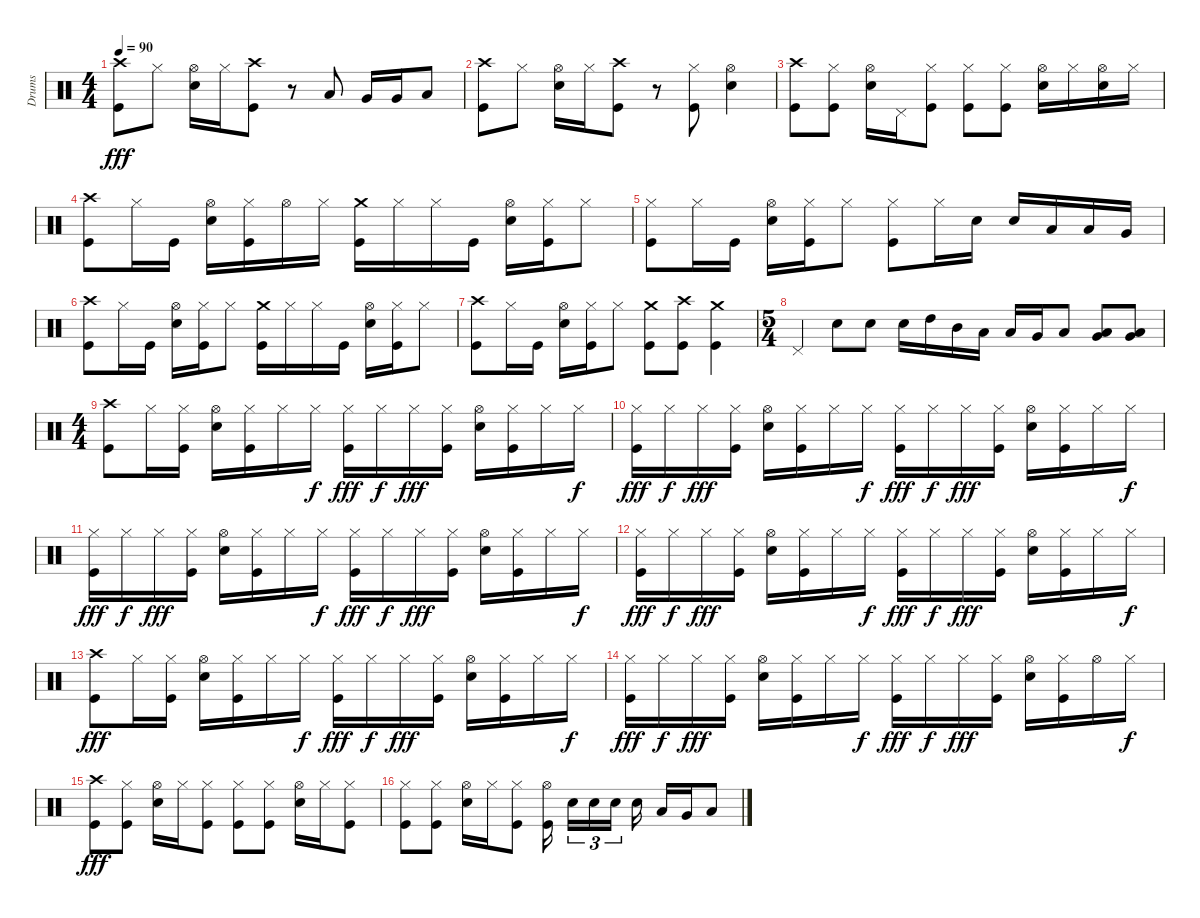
\track ("Drums" "Drums") {instrument percussion}
\staff {score}
\articulation defaults
\ts (4 4)
\tempo 90
\clef neutral
\ks c
("Crash high (hit)" "Kick (hit)").8{dy fff} "Hi-Hat (closed)".8 ("Hi-Hat (open)" "Snare (hit) 2").16 "Hi-Hat (closed)".16 ("Crash high (hit)" "Kick (hit)").8 r.8 "Low Tom (hit)".8 "Very Low Tom (hit)".16 "Very Low Tom (hit)".16 "Low Floor Tom (hit)".8 |
("Crash high (hit)" "Kick (hit)").8 "Hi-Hat (closed)".8 ("Hi-Hat (open)" "Snare (hit) 2").16 "Hi-Hat (closed)".16 ("Crash high (hit)" "Kick (hit)").8 r.8 ("Hi-Hat (closed)" "Kick (hit)").8 ("Hi-Hat (open)" "Snare (hit) 2").4 |
("Crash high (hit)" "Kick (hit)").8 ("Hi-Hat (closed)" "Kick (hit)").8 ("Hi-Hat (open)" "Snare (hit) 2").16 "Pedal Hi-Hat (hit)".16 ("Hi-Hat (closed)" "Kick (hit)").8 ("Hi-Hat (closed)" "Kick (hit)").8 ("Hi-Hat (closed)" "Kick (hit)").8 ("Hi-Hat (open)" "Snare (hit) 2").16 "Hi-Hat (closed)".16 ("Hi-Hat (open)" "Snare (hit) 2").16 "Hi-Hat (closed)".16 |
("Crash high (hit)" "Kick (hit)").8 "Hi-Hat (closed)".16 "Kick (hit)".16 ("Hi-Hat (open)" "Snare (hit) 2").16 ("Hi-Hat (closed)" "Kick (hit)").16 "Hi-Hat (open)".16 "Hi-Hat (closed)".16 ("Crash medium (hit)" "Kick (hit)").16 "Hi-Hat (closed)".16 "Hi-Hat (closed)".16 "Kick (hit)".16 ("Hi-Hat (open)" "Snare (hit) 2").16 ("Hi-Hat (closed)" "Kick (hit)").16 "Hi-Hat (closed)".8 |
("Hi-Hat (closed)" "Kick (hit)").8 "Hi-Hat (closed)".16 "Kick (hit)".16 ("Hi-Hat (open)" "Snare (hit) 2").16 ("Hi-Hat (closed)" "Kick (hit)").16 "Hi-Hat (closed)".8 ("Hi-Hat (closed)" "Kick (hit)").8 "Hi-Hat (closed)".16 "Snare (hit) 2".16 "Snare (hit) 2".16 "Low Tom (hit)".16 "Low Tom (hit)".16 "Very Low Tom (hit)".16 |
("Crash high (hit)" "Kick (hit)").8 "Hi-Hat (closed)".16 "Kick (hit)".16 ("Hi-Hat (open)" "Snare (hit) 2").16 ("Hi-Hat (closed)" "Kick (hit)").16 "Hi-Hat (closed)".8 ("Crash medium (hit)" "Kick (hit)").16 "Hi-Hat (closed)".16 "Hi-Hat (closed)".16 "Kick (hit)".16 ("Hi-Hat (open)" "Snare (hit) 2").16 ("Hi-Hat (closed)" "Kick (hit)").16 "Hi-Hat (closed)".8 |
("Crash high (hit)" "Kick (hit)").8 "Hi-Hat (closed)".16 "Kick (hit)".16 ("Hi-Hat (open)" "Snare (hit) 2").16 ("Hi-Hat (closed)" "Kick (hit)").16 "Hi-Hat (closed)".8 ("Crash medium (hit)" "Kick (hit)").8 ("Crash high (hit)" "Kick (hit)").8 ("Crash medium (hit)" "Kick (hit)").4 |
\ts (5 4)
"Pedal Hi-Hat (hit)".4 "Snare (hit) 2".8 "Snare (hit) 2".8 "Snare (hit) 2".16 "High Tom (hit)".16 "Mid Tom (hit)".16 "Low Tom (hit)".16 "Low Tom (hit)".16 "Very Low Tom (hit)".16 "Low Floor Tom (hit)".8 ("Very Low Tom (hit)" "Low Floor Tom (hit)").8 ("Very Low Tom (hit)" "Low Floor Tom (hit)").8 |
\ts (4 4)
("Crash high (hit)" "Kick (hit)").8 "Hi-Hat (closed)".16 ("Hi-Hat (closed)" "Kick (hit)").16 ("Hi-Hat (open)" "Snare (hit) 2").16 ("Hi-Hat (closed)" "Kick (hit)").16 "Hi-Hat (closed)".16 "Hi-Hat (closed)".16{dy f} ("Hi-Hat (closed)" "Kick (hit)").16{dy fff} "Hi-Hat (closed)".16{dy f} "Hi-Hat (closed)".16{dy fff} ("Hi-Hat (closed)" "Kick (hit)").16 ("Hi-Hat (open)" "Snare (hit) 2").16 ("Hi-Hat (closed)" "Kick (hit)").16 "Hi-Hat (closed)".16 "Hi-Hat (closed)".16{dy f} |
("Hi-Hat (closed)" "Kick (hit)").16{dy fff} "Hi-Hat (closed)".16{dy f} "Hi-Hat (closed)".16{dy fff} ("Hi-Hat (closed)" "Kick (hit)").16 ("Hi-Hat (open)" "Snare (hit) 2").16 ("Hi-Hat (closed)" "Kick (hit)").16 "Hi-Hat (closed)".16 "Hi-Hat (closed)".16{dy f} ("Hi-Hat (closed)" "Kick (hit)").16{dy fff} "Hi-Hat (closed)".16{dy f} "Hi-Hat (closed)".16{dy fff} ("Hi-Hat (closed)" "Kick (hit)").16 ("Hi-Hat (open)" "Snare (hit) 2").16 ("Hi-Hat (closed)" "Kick (hit)").16 "Hi-Hat (closed)".16 "Hi-Hat (closed)".16{dy f} |
("Hi-Hat (closed)" "Kick (hit)").16{dy fff} "Hi-Hat (closed)".16{dy f} "Hi-Hat (closed)".16{dy fff} ("Hi-Hat (closed)" "Kick (hit)").16 ("Hi-Hat (open)" "Snare (hit) 2").16 ("Hi-Hat (closed)" "Kick (hit)").16 "Hi-Hat (closed)".16 "Hi-Hat (closed)".16{dy f} ("Hi-Hat (closed)" "Kick (hit)").16{dy fff} "Hi-Hat (closed)".16{dy f} "Hi-Hat (closed)".16{dy fff} ("Hi-Hat (closed)" "Kick (hit)").16 ("Hi-Hat (open)" "Snare (hit) 2").16 ("Hi-Hat (closed)" "Kick (hit)").16 "Hi-Hat (closed)".16 "Hi-Hat (closed)".16{dy f} |
("Hi-Hat (closed)" "Kick (hit)").16{dy fff} "Hi-Hat (closed)".16{dy f} "Hi-Hat (closed)".16{dy fff} ("Hi-Hat (closed)" "Kick (hit)").16 ("Hi-Hat (open)" "Snare (hit) 2").16 ("Hi-Hat (closed)" "Kick (hit)").16 "Hi-Hat (closed)".16 "Hi-Hat (closed)".16{dy f} ("Hi-Hat (closed)" "Kick (hit)").16{dy fff} "Hi-Hat (closed)".16{dy f} "Hi-Hat (closed)".16{dy fff} ("Hi-Hat (closed)" "Kick (hit)").16 ("Hi-Hat (open)" "Snare (hit) 2").16 ("Hi-Hat (closed)" "Kick (hit)").16 "Hi-Hat (closed)".16 "Hi-Hat (closed)".16{dy f} |
("Crash high (hit)" "Kick (hit)").8{dy fff} "Hi-Hat (closed)".16 ("Hi-Hat (closed)" "Kick (hit)").16 ("Hi-Hat (open)" "Snare (hit) 2").16 ("Hi-Hat (closed)" "Kick (hit)").16 "Hi-Hat (closed)".16 "Hi-Hat (closed)".16{dy f} ("Hi-Hat (closed)" "Kick (hit)").16{dy fff} "Hi-Hat (closed)".16{dy f} "Hi-Hat (closed)".16{dy fff} ("Hi-Hat (closed)" "Kick (hit)").16 ("Hi-Hat (open)" "Snare (hit) 2").16 ("Hi-Hat (closed)" "Kick (hit)").16 "Hi-Hat (closed)".16 "Hi-Hat (closed)".16{dy f} |
("Hi-Hat (closed)" "Kick (hit)").16{dy fff} "Hi-Hat (closed)".16{dy f} "Hi-Hat (closed)".16{dy fff} ("Hi-Hat (closed)" "Kick (hit)").16 ("Hi-Hat (open)" "Snare (hit) 2").16 ("Hi-Hat (closed)" "Kick (hit)").16 "Hi-Hat (closed)".16 "Hi-Hat (closed)".16{dy f} ("Hi-Hat (closed)" "Kick (hit)").16{dy fff} "Hi-Hat (closed)".16{dy f} "Hi-Hat (closed)".16{dy fff} ("Hi-Hat (closed)" "Kick (hit)").16 ("Hi-Hat (open)" "Snare (hit) 2").16 ("Hi-Hat (closed)" "Kick (hit)").16 "Hi-Hat (open)".16 "Hi-Hat (closed)".16{dy f} |
("Crash high (hit)" "Kick (hit)").8{dy fff} ("Hi-Hat (closed)" "Kick (hit)").8 ("Hi-Hat (open)" "Snare (hit) 2").16 "Hi-Hat (closed)".16 ("Hi-Hat (closed)" "Kick (hit)").8 ("Hi-Hat (closed)" "Kick (hit)").8 ("Hi-Hat (closed)" "Kick (hit)").8 ("Hi-Hat (open)" "Snare (hit) 2").16 "Hi-Hat (closed)".16 ("Hi-Hat (closed)" "Kick (hit)").8 |
("Hi-Hat (closed)" "Kick (hit)").8 ("Hi-Hat (closed)" "Kick (hit)").8 ("Hi-Hat (open)" "Snare (hit) 2").16 "Hi-Hat (closed)".16 ("Hi-Hat (closed)" "Kick (hit)").8 ("Hi-Hat (open)" "Kick (hit)").16 "Snare (hit) 2".16{tu (3 2)} "Snare (hit) 2".16{tu (3 2)} "Snare (hit) 2".16{tu (3 2)} "Snare (hit) 2".16 "Low Tom (hit)".16 "Very Low Tom (hit)".16 "Low Floor Tom (hit)".8
